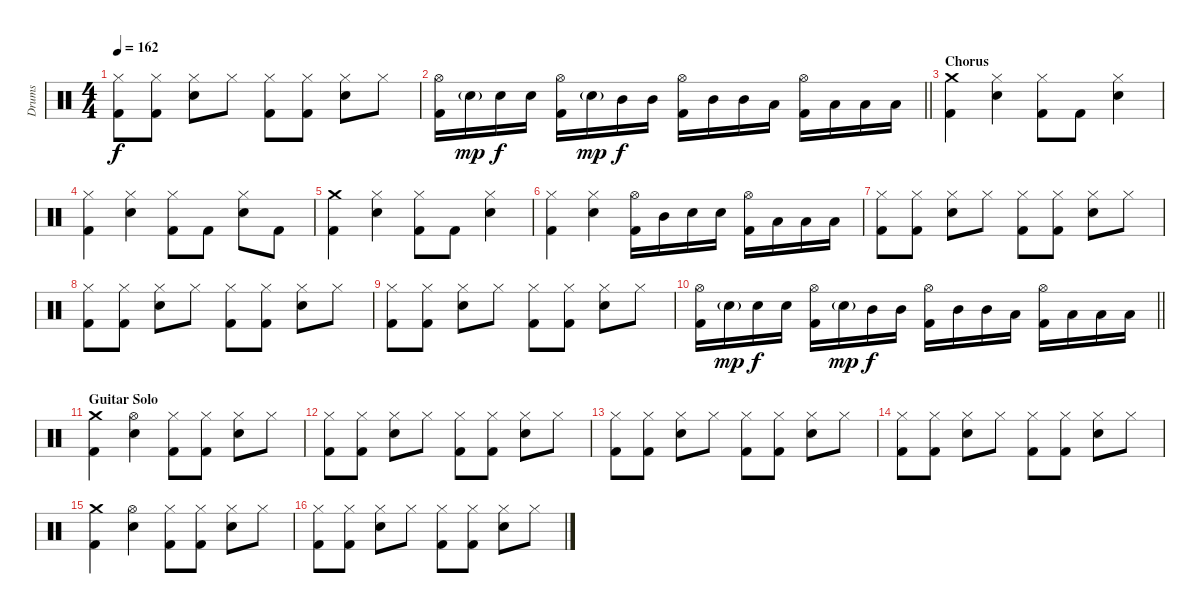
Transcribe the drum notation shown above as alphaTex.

\track ("Drums" "Drums") {instrument percussion}
\staff {score}
\articulation defaults
\ts (4 4)
\tempo 162
\clef neutral
\ks c
("Hi-Hat (closed)" "Kick (hit) 2").8{dy f} ("Hi-Hat (closed)" "Kick (hit) 2").8 ("Hi-Hat (closed)" "Electric Snare (hit)").8 "Hi-Hat (closed)".8 ("Hi-Hat (closed)" "Kick (hit) 2").8 ("Hi-Hat (closed)" "Kick (hit) 2").8 ("Hi-Hat (closed)" "Electric Snare (hit)").8 "Hi-Hat (closed)".8 |
\barLineRight lightlight
("Hi-Hat (open)" "Kick (hit) 2").16 "Electric Snare (hit)"{g}.16{dy mp} "Electric Snare (hit)".16{dy f} "Electric Snare (hit)".16 ("Hi-Hat (open)" "Kick (hit) 2").16 "Electric Snare (hit)"{g}.16{dy mp} "Mid Tom (hit)".16{dy f} "Mid Tom (hit)".16 ("Hi-Hat (open)" "Kick (hit) 2").16 "Mid Tom (hit)".16 "Mid Tom (hit)".16 "Low Tom (hit)".16 ("Hi-Hat (open)" "Kick (hit) 2").16 "Low Tom (hit)".16 "Low Floor Tom (hit)".16 "Low Floor Tom (hit)".16 |
\section ("" "Chorus")
("Crash medium (hit)" "Kick (hit) 2").4 ("Hi-Hat (closed)" "Electric Snare (hit)").4 ("Hi-Hat (closed)" "Kick (hit) 2").8 "Kick (hit) 2".8 ("Hi-Hat (closed)" "Electric Snare (hit)").4 |
("Hi-Hat (closed)" "Kick (hit) 2").4 ("Hi-Hat (closed)" "Electric Snare (hit)").4 ("Hi-Hat (closed)" "Kick (hit) 2").8 "Kick (hit) 2".8 ("Hi-Hat (closed)" "Electric Snare (hit)").8 "Kick (hit) 2".8 |
("Crash medium (hit)" "Kick (hit) 2").4 ("Hi-Hat (closed)" "Electric Snare (hit)").4 ("Hi-Hat (closed)" "Kick (hit) 2").8 "Kick (hit) 2".8 ("Hi-Hat (closed)" "Electric Snare (hit)").4 |
("Hi-Hat (closed)" "Kick (hit) 2").4 ("Hi-Hat (closed)" "Electric Snare (hit)").4 ("Hi-Hat (open)" "Kick (hit) 2").16 "Mid Tom (hit)".16 "Electric Snare (hit)".16 "Electric Snare (hit)".16 ("Hi-Hat (open)" "Kick (hit) 2").16 "Low Tom (hit)".16 "Low Floor Tom (hit)".16 "Low Floor Tom (hit)".16 |
("Hi-Hat (closed)" "Kick (hit) 2").8 ("Hi-Hat (closed)" "Kick (hit) 2").8 ("Hi-Hat (closed)" "Electric Snare (hit)").8 "Hi-Hat (closed)".8 ("Hi-Hat (closed)" "Kick (hit) 2").8 ("Hi-Hat (closed)" "Kick (hit) 2").8 ("Hi-Hat (closed)" "Electric Snare (hit)").8 "Hi-Hat (closed)".8 |
("Hi-Hat (closed)" "Kick (hit) 2").8 ("Hi-Hat (closed)" "Kick (hit) 2").8 ("Hi-Hat (closed)" "Electric Snare (hit)").8 "Hi-Hat (closed)".8 ("Hi-Hat (closed)" "Kick (hit) 2").8 ("Hi-Hat (closed)" "Kick (hit) 2").8 ("Hi-Hat (closed)" "Electric Snare (hit)").8 "Hi-Hat (closed)".8 |
("Hi-Hat (closed)" "Kick (hit) 2").8 ("Hi-Hat (closed)" "Kick (hit) 2").8 ("Hi-Hat (closed)" "Electric Snare (hit)").8 "Hi-Hat (closed)".8 ("Hi-Hat (closed)" "Kick (hit) 2").8 ("Hi-Hat (closed)" "Kick (hit) 2").8 ("Hi-Hat (closed)" "Electric Snare (hit)").8 "Hi-Hat (closed)".8 |
\barLineRight lightlight
("Hi-Hat (open)" "Kick (hit) 2").16 "Electric Snare (hit)"{g}.16{dy mp} "Electric Snare (hit)".16{dy f} "Electric Snare (hit)".16 ("Hi-Hat (open)" "Kick (hit) 2").16 "Electric Snare (hit)"{g}.16{dy mp} "Mid Tom (hit)".16{dy f} "Mid Tom (hit)".16 ("Hi-Hat (open)" "Kick (hit) 2").16 "Mid Tom (hit)".16 "Mid Tom (hit)".16 "Low Tom (hit)".16 ("Hi-Hat (open)" "Kick (hit) 2").16 "Low Tom (hit)".16 "Low Floor Tom (hit)".16 "Low Floor Tom (hit)".16 |
\section ("" "Guitar Solo")
("Crash medium (hit)" "Kick (hit) 2").4 ("Hi-Hat (open)" "Electric Snare (hit)").4 ("Hi-Hat (closed)" "Kick (hit) 2").8 ("Hi-Hat (closed)" "Kick (hit) 2").8 ("Hi-Hat (closed)" "Electric Snare (hit)").8 "Hi-Hat (closed)".8 |
("Hi-Hat (closed)" "Kick (hit) 2").8 ("Hi-Hat (closed)" "Kick (hit) 2").8 ("Hi-Hat (closed)" "Electric Snare (hit)").8 "Hi-Hat (closed)".8 ("Hi-Hat (closed)" "Kick (hit) 2").8 ("Hi-Hat (closed)" "Kick (hit) 2").8 ("Hi-Hat (closed)" "Electric Snare (hit)").8 "Hi-Hat (closed)".8 |
("Hi-Hat (closed)" "Kick (hit) 2").8 ("Hi-Hat (closed)" "Kick (hit) 2").8 ("Hi-Hat (closed)" "Electric Snare (hit)").8 "Hi-Hat (closed)".8 ("Hi-Hat (closed)" "Kick (hit) 2").8 ("Hi-Hat (closed)" "Kick (hit) 2").8 ("Hi-Hat (closed)" "Electric Snare (hit)").8 "Hi-Hat (closed)".8 |
("Hi-Hat (closed)" "Kick (hit) 2").8 ("Hi-Hat (closed)" "Kick (hit) 2").8 ("Hi-Hat (closed)" "Electric Snare (hit)").8 "Hi-Hat (closed)".8 ("Hi-Hat (closed)" "Kick (hit) 2").8 ("Hi-Hat (closed)" "Kick (hit) 2").8 ("Hi-Hat (closed)" "Electric Snare (hit)").8 "Hi-Hat (closed)".8 |
("Crash medium (hit)" "Kick (hit) 2").4 ("Hi-Hat (open)" "Electric Snare (hit)").4 ("Hi-Hat (closed)" "Kick (hit) 2").8 ("Hi-Hat (closed)" "Kick (hit) 2").8 ("Hi-Hat (closed)" "Electric Snare (hit)").8 "Hi-Hat (closed)".8 |
("Hi-Hat (closed)" "Kick (hit) 2").8 ("Hi-Hat (closed)" "Kick (hit) 2").8 ("Hi-Hat (closed)" "Electric Snare (hit)").8 "Hi-Hat (closed)".8 ("Hi-Hat (closed)" "Kick (hit) 2").8 ("Hi-Hat (closed)" "Kick (hit) 2").8 ("Hi-Hat (closed)" "Electric Snare (hit)").8 "Hi-Hat (closed)".8
